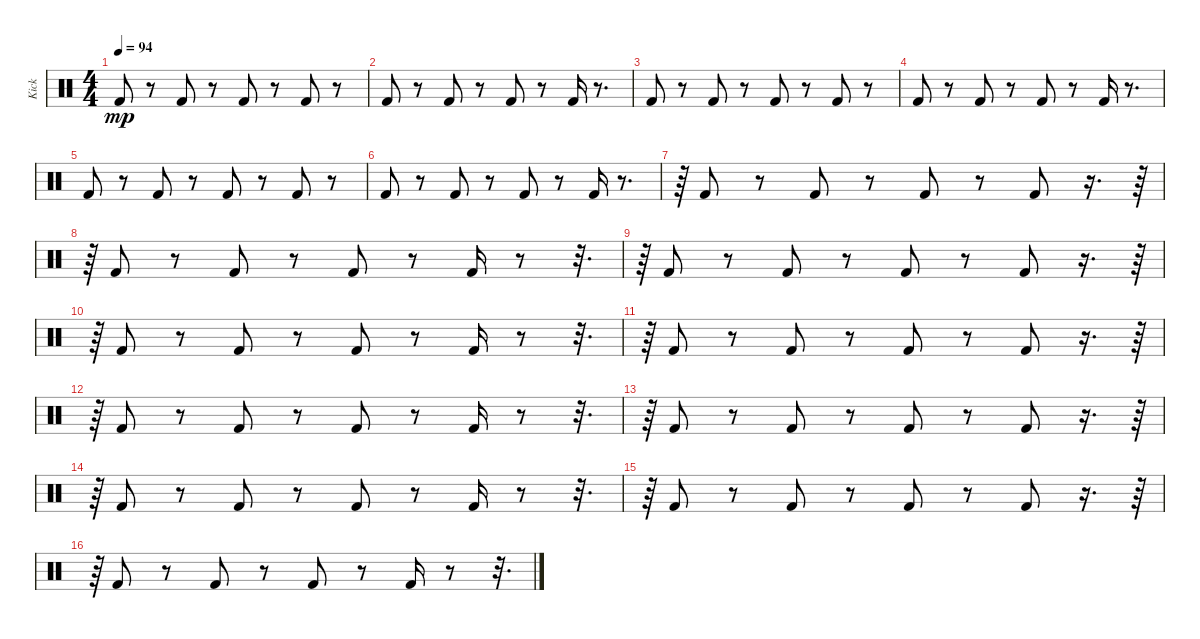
\track ("Kick" "Kick") {instrument percussion}
\staff {score}
\articulation defaults
\ts (4 4)
\tempo 94
\clef neutral
\ks c "Kick (hit) 2".8{dy mp}
r.8 "Kick (hit) 2".8 r.8 "Kick (hit) 2".8 r.8 "Kick (hit) 2".8 r.8 |
"Kick (hit) 2".8 r.8 "Kick (hit) 2".8 r.8 "Kick (hit) 2".8 r.8 "Kick (hit) 2".16 r.8{d} |
"Kick (hit) 2".8 r.8 "Kick (hit) 2".8 r.8 "Kick (hit) 2".8 r.8 "Kick (hit) 2".8 r.8 |
"Kick (hit) 2".8 r.8 "Kick (hit) 2".8 r.8 "Kick (hit) 2".8 r.8 "Kick (hit) 2".16 r.8{d} |
"Kick (hit) 2".8 r.8 "Kick (hit) 2".8 r.8 "Kick (hit) 2".8 r.8 "Kick (hit) 2".8 r.8 |
"Kick (hit) 2".8 r.8 "Kick (hit) 2".8 r.8 "Kick (hit) 2".8 r.8 "Kick (hit) 2".16 r.8{d} |
r.64 "Kick (hit) 2".8 r.8 "Kick (hit) 2".8 r.8 "Kick (hit) 2".8 r.8 "Kick (hit) 2".8 r.16{d} r.64 |
r.64 "Kick (hit) 2".8 r.8 "Kick (hit) 2".8 r.8 "Kick (hit) 2".8 r.8 "Kick (hit) 2".16 r.8 r.32{d} |
r.64 "Kick (hit) 2".8 r.8 "Kick (hit) 2".8 r.8 "Kick (hit) 2".8 r.8 "Kick (hit) 2".8 r.16{d} r.64 |
r.64 "Kick (hit) 2".8 r.8 "Kick (hit) 2".8 r.8 "Kick (hit) 2".8 r.8 "Kick (hit) 2".16 r.8 r.32{d} |
r.64 "Kick (hit) 2".8 r.8 "Kick (hit) 2".8 r.8 "Kick (hit) 2".8 r.8 "Kick (hit) 2".8 r.16{d} r.64 |
r.64 "Kick (hit) 2".8 r.8 "Kick (hit) 2".8 r.8 "Kick (hit) 2".8 r.8 "Kick (hit) 2".16 r.8 r.32{d} |
r.64 "Kick (hit) 2".8 r.8 "Kick (hit) 2".8 r.8 "Kick (hit) 2".8 r.8 "Kick (hit) 2".8 r.16{d} r.64 |
r.64 "Kick (hit) 2".8 r.8 "Kick (hit) 2".8 r.8 "Kick (hit) 2".8 r.8 "Kick (hit) 2".16 r.8 r.32{d} |
r.64 "Kick (hit) 2".8 r.8 "Kick (hit) 2".8 r.8 "Kick (hit) 2".8 r.8 "Kick (hit) 2".8 r.16{d} r.64 |
r.64 "Kick (hit) 2".8 r.8 "Kick (hit) 2".8 r.8 "Kick (hit) 2".8 r.8 "Kick (hit) 2".16 r.8 r.32{d}
